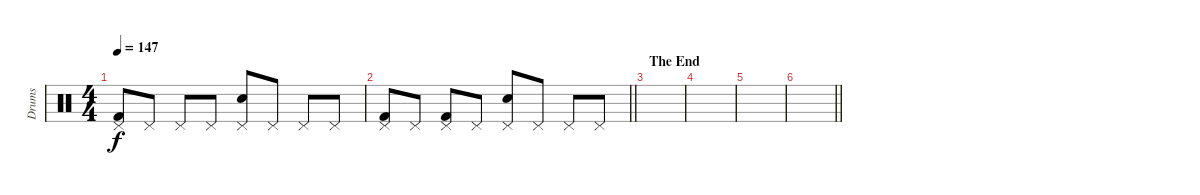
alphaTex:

\track ("Drums" "Drums") {instrument percussion}
\staff {score}
\articulation defaults
\ts (4 4)
\tempo 147
\clef neutral
\ks c
("Kick (hit) 2" "Pedal Hi-Hat (hit)").8{dy f} "Pedal Hi-Hat (hit)".8 "Pedal Hi-Hat (hit)".8 "Pedal Hi-Hat (hit)".8 ("Electric Snare (hit)" "Pedal Hi-Hat (hit)").8 "Pedal Hi-Hat (hit)".8 "Pedal Hi-Hat (hit)".8 "Pedal Hi-Hat (hit)".8 |
\barLineRight lightlight
("Kick (hit) 2" "Pedal Hi-Hat (hit)").8 "Pedal Hi-Hat (hit)".8 ("Kick (hit) 2" "Pedal Hi-Hat (hit)").8 "Pedal Hi-Hat (hit)".8 ("Electric Snare (hit)" "Pedal Hi-Hat (hit)").8 "Pedal Hi-Hat (hit)".8 "Pedal Hi-Hat (hit)".8 "Pedal Hi-Hat (hit)".8 |
\section ("" "The End")
|
|
|
\barLineRight lightlight
